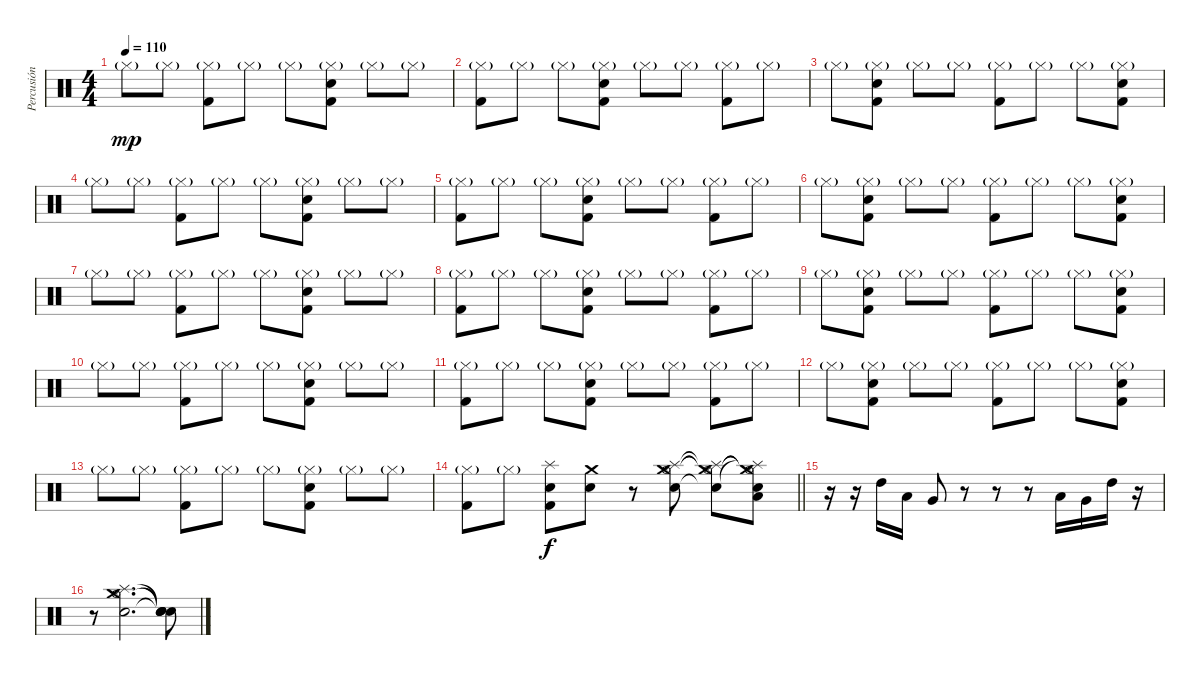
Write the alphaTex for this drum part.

\track ("Percusión" "Percusión") {instrument percussion}
\staff {score}
\articulation defaults
\ts (4 4)
\tempo 110
\clef neutral
\ks c "Hi-Hat (closed)"{g}.8{dy mp} "Hi-Hat (closed)"{g}.8
("Hi-Hat (closed)"{g} "Kick (hit) 2").8 "Hi-Hat (closed)"{g}.8 "Hi-Hat (closed)"{g}.8 ("Hi-Hat (closed)"{g} "Kick (hit) 2" "Snare (hit) 2").8 "Hi-Hat (closed)"{g}.8 "Hi-Hat (closed)"{g}.8 |
("Hi-Hat (closed)"{g} "Kick (hit) 2").8 "Hi-Hat (closed)"{g}.8 "Hi-Hat (closed)"{g}.8 ("Hi-Hat (closed)"{g} "Kick (hit) 2" "Snare (hit) 2").8 "Hi-Hat (closed)"{g}.8 "Hi-Hat (closed)"{g}.8 ("Hi-Hat (closed)"{g} "Kick (hit) 2").8 "Hi-Hat (closed)"{g}.8 |
"Hi-Hat (closed)"{g}.8 ("Hi-Hat (closed)"{g} "Kick (hit) 2" "Snare (hit) 2").8 "Hi-Hat (closed)"{g}.8 "Hi-Hat (closed)"{g}.8 ("Hi-Hat (closed)"{g} "Kick (hit) 2").8 "Hi-Hat (closed)"{g}.8 "Hi-Hat (closed)"{g}.8 ("Hi-Hat (closed)"{g} "Kick (hit) 2" "Snare (hit) 2").8 |
"Hi-Hat (closed)"{g}.8 "Hi-Hat (closed)"{g}.8 ("Hi-Hat (closed)"{g} "Kick (hit) 2").8 "Hi-Hat (closed)"{g}.8 "Hi-Hat (closed)"{g}.8 ("Hi-Hat (closed)"{g} "Kick (hit) 2" "Snare (hit) 2").8 "Hi-Hat (closed)"{g}.8 "Hi-Hat (closed)"{g}.8 |
("Hi-Hat (closed)"{g} "Kick (hit) 2").8 "Hi-Hat (closed)"{g}.8 "Hi-Hat (closed)"{g}.8 ("Hi-Hat (closed)"{g} "Kick (hit) 2" "Snare (hit) 2").8 "Hi-Hat (closed)"{g}.8 "Hi-Hat (closed)"{g}.8 ("Hi-Hat (closed)"{g} "Kick (hit) 2").8 "Hi-Hat (closed)"{g}.8 |
"Hi-Hat (closed)"{g}.8 ("Hi-Hat (closed)"{g} "Kick (hit) 2" "Snare (hit) 2").8 "Hi-Hat (closed)"{g}.8 "Hi-Hat (closed)"{g}.8 ("Hi-Hat (closed)"{g} "Kick (hit) 2").8 "Hi-Hat (closed)"{g}.8 "Hi-Hat (closed)"{g}.8 ("Hi-Hat (closed)"{g} "Kick (hit) 2" "Snare (hit) 2").8 |
"Hi-Hat (closed)"{g}.8 "Hi-Hat (closed)"{g}.8 ("Hi-Hat (closed)"{g} "Kick (hit) 2").8 "Hi-Hat (closed)"{g}.8 "Hi-Hat (closed)"{g}.8 ("Hi-Hat (closed)"{g} "Kick (hit) 2" "Snare (hit) 2").8 "Hi-Hat (closed)"{g}.8 "Hi-Hat (closed)"{g}.8 |
("Hi-Hat (closed)"{g} "Kick (hit) 2").8 "Hi-Hat (closed)"{g}.8 "Hi-Hat (closed)"{g}.8 ("Hi-Hat (closed)"{g} "Kick (hit) 2" "Snare (hit) 2").8 "Hi-Hat (closed)"{g}.8 "Hi-Hat (closed)"{g}.8 ("Hi-Hat (closed)"{g} "Kick (hit) 2").8 "Hi-Hat (closed)"{g}.8 |
"Hi-Hat (closed)"{g}.8 ("Hi-Hat (closed)"{g} "Kick (hit) 2" "Snare (hit) 2").8 "Hi-Hat (closed)"{g}.8 "Hi-Hat (closed)"{g}.8 ("Hi-Hat (closed)"{g} "Kick (hit) 2").8 "Hi-Hat (closed)"{g}.8 "Hi-Hat (closed)"{g}.8 ("Hi-Hat (closed)"{g} "Kick (hit) 2" "Snare (hit) 2").8 |
"Hi-Hat (closed)"{g}.8 "Hi-Hat (closed)"{g}.8 ("Hi-Hat (closed)"{g} "Kick (hit) 2").8 "Hi-Hat (closed)"{g}.8 "Hi-Hat (closed)"{g}.8 ("Hi-Hat (closed)"{g} "Kick (hit) 2" "Snare (hit) 2").8 "Hi-Hat (closed)"{g}.8 "Hi-Hat (closed)"{g}.8 |
("Hi-Hat (closed)"{g} "Kick (hit) 2").8 "Hi-Hat (closed)"{g}.8 "Hi-Hat (closed)"{g}.8 ("Hi-Hat (closed)"{g} "Kick (hit) 2" "Snare (hit) 2").8 "Hi-Hat (closed)"{g}.8 "Hi-Hat (closed)"{g}.8 ("Hi-Hat (closed)"{g} "Kick (hit) 2").8 "Hi-Hat (closed)"{g}.8 |
"Hi-Hat (closed)"{g}.8 ("Hi-Hat (closed)"{g} "Kick (hit) 2" "Snare (hit) 2").8 "Hi-Hat (closed)"{g}.8 "Hi-Hat (closed)"{g}.8 ("Hi-Hat (closed)"{g} "Kick (hit) 2").8 "Hi-Hat (closed)"{g}.8 "Hi-Hat (closed)"{g}.8 ("Hi-Hat (closed)"{g} "Kick (hit) 2" "Snare (hit) 2").8 |
"Hi-Hat (closed)"{g}.8 "Hi-Hat (closed)"{g}.8 ("Hi-Hat (closed)"{g} "Kick (hit) 2").8 "Hi-Hat (closed)"{g}.8 "Hi-Hat (closed)"{g}.8 ("Hi-Hat (closed)"{g} "Kick (hit) 2" "Snare (hit) 2").8 "Hi-Hat (closed)"{g}.8 "Hi-Hat (closed)"{g}.8 |
\barLineRight lightlight
("Hi-Hat (closed)"{g} "Kick (hit) 2").8 "Hi-Hat (closed)"{g}.8 ("Kick (hit) 2" "Splash (hit)" "Snare (hit) 2").8{dy f} ("Crash medium (hit)" "Snare (hit) 2").8 r.8 ("Hi-Hat (open)" "Crash medium (hit)" "Splash (hit)" "Snare (hit) 2").8 ("Hi-Hat (open)"{t} "Crash medium (hit)"{t} "Splash (hit)"{t} "Snare (hit) 2"{t}).8 ("Hi-Hat (open)"{t} "Crash medium (hit)"{t} "Low Tom (hit)" "Splash (hit)"{t} "Snare (hit) 2").8 |
r.16 r.16 "High Tom (hit)".16 "Low Tom (hit)".16 "Very Low Tom (hit)".8 r.8 r.8 r.8 "Low Tom (hit)".16 "Very Low Tom (hit)".16 "High Tom (hit)".16 r.16 |
r.8 ("Hi-Hat (open)" "Crash medium (hit)" "Splash (hit)" "Snare (hit) 2").2{d} ("Snare (hit)"{t} "Snare (hit)"{t} "Snare (hit)"{t} "Snare (hit)"{t}).8
